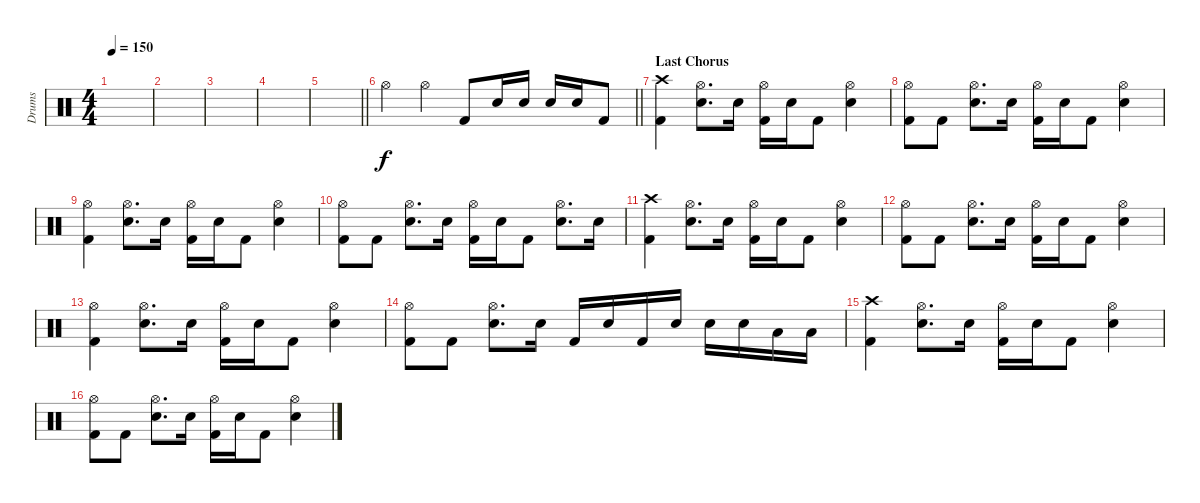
\track ("Drums" "Drums") {instrument percussion}
\staff {score}
\articulation defaults
\ts (4 4)
\tempo 150
\clef neutral
\ks c
|
|
|
|
\barLineRight lightlight
|
\barLineRight lightlight "Hi-Hat (open)".4 "Hi-Hat (open)".4 "Kick (hit) 2".8 "Snare (hit) 2".16 "Snare (hit) 2".16 "Snare (hit) 2".16 "Snare (hit) 2".16 "Kick (hit) 2".8
|
\section ("" "Last Chorus")
("Crash high (hit)" "Kick (hit) 2").4 ("Hi-Hat (open)" "Snare (hit) 2").8{d} "Snare (hit) 2".16 ("Hi-Hat (open)" "Kick (hit) 2").16 "Snare (hit) 2".16 "Kick (hit) 2".8 ("Hi-Hat (open)" "Snare (hit) 2").4 |
("Hi-Hat (open)" "Kick (hit) 2").8 "Kick (hit) 2".8 ("Hi-Hat (open)" "Snare (hit) 2").8{d} "Snare (hit) 2".16 ("Hi-Hat (open)" "Kick (hit) 2").16 "Snare (hit) 2".16 "Kick (hit) 2".8 ("Hi-Hat (open)" "Snare (hit) 2").4 |
("Hi-Hat (open)" "Kick (hit) 2").4 ("Hi-Hat (open)" "Snare (hit) 2").8{d} "Snare (hit) 2".16 ("Hi-Hat (open)" "Kick (hit) 2").16 "Snare (hit) 2".16 "Kick (hit) 2".8 ("Hi-Hat (open)" "Snare (hit) 2").4 |
("Hi-Hat (open)" "Kick (hit) 2").8 "Kick (hit) 2".8 ("Hi-Hat (open)" "Snare (hit) 2").8{d} "Snare (hit) 2".16 ("Hi-Hat (open)" "Kick (hit) 2").16 "Snare (hit) 2".16 "Kick (hit) 2".8 ("Hi-Hat (open)" "Snare (hit) 2").8{d} "Snare (hit) 2".16 |
("Crash high (hit)" "Kick (hit) 2").4 ("Hi-Hat (open)" "Snare (hit) 2").8{d} "Snare (hit) 2".16 ("Hi-Hat (open)" "Kick (hit) 2").16 "Snare (hit) 2".16 "Kick (hit) 2".8 ("Hi-Hat (open)" "Snare (hit) 2").4 |
("Hi-Hat (open)" "Kick (hit) 2").8 "Kick (hit) 2".8 ("Hi-Hat (open)" "Snare (hit) 2").8{d} "Snare (hit) 2".16 ("Hi-Hat (open)" "Kick (hit) 2").16 "Snare (hit) 2".16 "Kick (hit) 2".8 ("Hi-Hat (open)" "Snare (hit) 2").4 |
("Hi-Hat (open)" "Kick (hit) 2").4 ("Hi-Hat (open)" "Snare (hit) 2").8{d} "Snare (hit) 2".16 ("Hi-Hat (open)" "Kick (hit) 2").16 "Snare (hit) 2".16 "Kick (hit) 2".8 ("Hi-Hat (open)" "Snare (hit) 2").4 |
("Hi-Hat (open)" "Kick (hit) 2").8 "Kick (hit) 2".8 ("Hi-Hat (open)" "Snare (hit) 2").8{d} "Snare (hit) 2".16 "Kick (hit) 2".16 "Snare (hit) 2".16 "Kick (hit) 2".16 "Snare (hit) 2".16 "Snare (hit) 2".16 "Snare (hit) 2".16 "Low Tom (hit)".16 "Low Tom (hit)".16 |
("Crash high (hit)" "Kick (hit) 2").4 ("Hi-Hat (open)" "Snare (hit) 2").8{d} "Snare (hit) 2".16 ("Hi-Hat (open)" "Kick (hit) 2").16 "Snare (hit) 2".16 "Kick (hit) 2".8 ("Hi-Hat (open)" "Snare (hit) 2").4 |
("Hi-Hat (open)" "Kick (hit) 2").8 "Kick (hit) 2".8 ("Hi-Hat (open)" "Snare (hit) 2").8{d} "Snare (hit) 2".16 ("Hi-Hat (open)" "Kick (hit) 2").16 "Snare (hit) 2".16 "Kick (hit) 2".8 ("Hi-Hat (open)" "Snare (hit) 2").4
